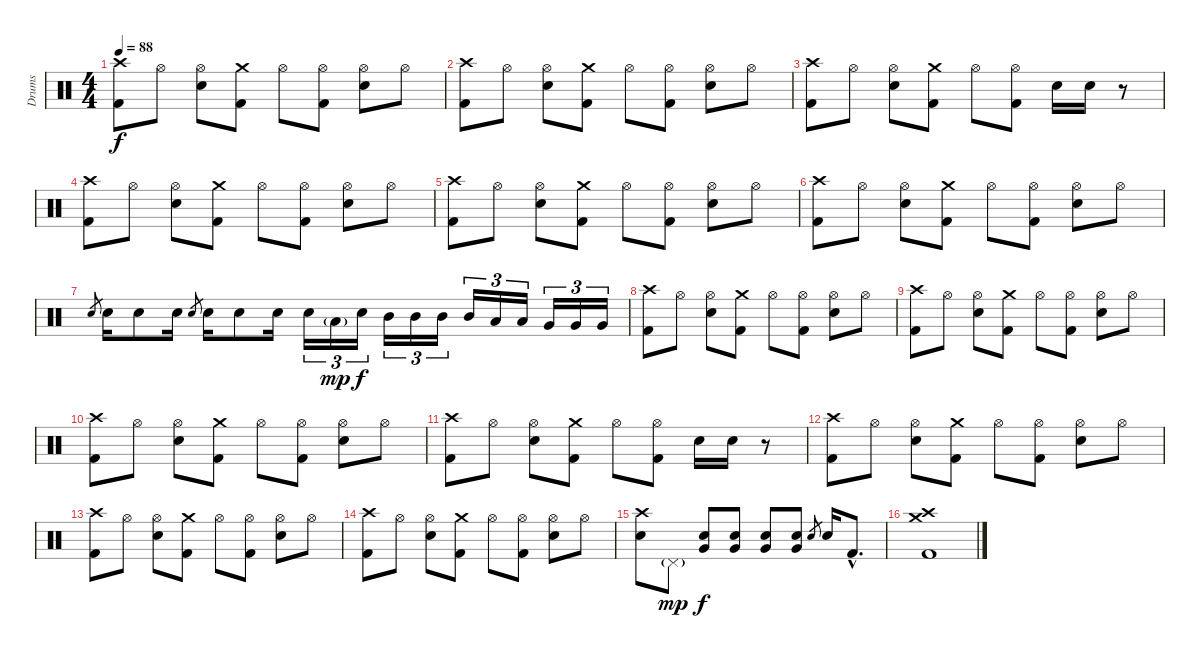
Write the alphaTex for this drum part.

\track ("Drums" "Drums") {instrument percussion}
\staff {score}
\articulation defaults
\ts (4 4)
\tempo 88
\clef neutral
\ks c
("Crash high (hit)" "Kick (hit) 2").8{dy f} "Hi-Hat (open)".8 ("Hi-Hat (open)" "Electric Snare (hit)").8 ("Crash medium (hit)" "Kick (hit) 2").8 "Hi-Hat (open)".8 ("Hi-Hat (open)" "Kick (hit) 2").8 ("Hi-Hat (open)" "Electric Snare (hit)").8 "Hi-Hat (open)".8 |
("Crash high (hit)" "Kick (hit) 2").8 "Hi-Hat (open)".8 ("Hi-Hat (open)" "Electric Snare (hit)").8 ("Crash medium (hit)" "Kick (hit) 2").8 "Hi-Hat (open)".8 ("Hi-Hat (open)" "Kick (hit) 2").8 ("Hi-Hat (open)" "Electric Snare (hit)").8 "Hi-Hat (open)".8 |
("Crash high (hit)" "Kick (hit) 2").8 "Hi-Hat (open)".8 ("Hi-Hat (open)" "Electric Snare (hit)").8 ("Crash medium (hit)" "Kick (hit) 2").8 "Hi-Hat (open)".8 ("Hi-Hat (open)" "Kick (hit) 2").8 "Electric Snare (hit)".16 "Electric Snare (hit)".16 r.8 |
("Crash high (hit)" "Kick (hit) 2").8 "Hi-Hat (open)".8 ("Hi-Hat (open)" "Electric Snare (hit)").8 ("Crash medium (hit)" "Kick (hit) 2").8 "Hi-Hat (open)".8 ("Hi-Hat (open)" "Kick (hit) 2").8 ("Hi-Hat (open)" "Electric Snare (hit)").8 "Hi-Hat (open)".8 |
("Crash high (hit)" "Kick (hit) 2").8 "Hi-Hat (open)".8 ("Hi-Hat (open)" "Electric Snare (hit)").8 ("Crash medium (hit)" "Kick (hit) 2").8 "Hi-Hat (open)".8 ("Hi-Hat (open)" "Kick (hit) 2").8 ("Hi-Hat (open)" "Electric Snare (hit)").8 "Hi-Hat (open)".8 |
("Crash high (hit)" "Kick (hit) 2").8 "Hi-Hat (open)".8 ("Hi-Hat (open)" "Electric Snare (hit)").8 ("Crash medium (hit)" "Kick (hit) 2").8 "Hi-Hat (open)".8 ("Hi-Hat (open)" "Kick (hit) 2").8 ("Hi-Hat (open)" "Electric Snare (hit)").8 "Hi-Hat (open)".8 |
"Electric Snare (hit)".8{gr} "Electric Snare (hit)".16 "Electric Snare (hit)".8 "Electric Snare (hit)".16 "Electric Snare (hit)".8{gr} "Electric Snare (hit)".16 "Electric Snare (hit)".8 "Electric Snare (hit)".16 "Electric Snare (hit)".16{tu (3 2)} "Low Tom (hit)"{g}.16{tu (3 2) dy mp} "Electric Snare (hit)".16{tu (3 2) dy f} "Mid Tom (hit)".16{tu (3 2)} "Mid Tom (hit)".16{tu (3 2)} "Mid Tom (hit)".16{tu (3 2)} "Mid Tom (hit)".16{tu (3 2)} "Low Tom (hit)".16{tu (3 2)} "Low Tom (hit)".16{tu (3 2)} "Very Low Tom (hit)".16{tu (3 2)} "Very Low Tom (hit)".16{tu (3 2)} "Very Low Tom (hit)".16{tu (3 2)} |
("Crash high (hit)" "Kick (hit) 2").8 "Hi-Hat (open)".8 ("Hi-Hat (open)" "Electric Snare (hit)").8 ("Crash medium (hit)" "Kick (hit) 2").8 "Hi-Hat (open)".8 ("Hi-Hat (open)" "Kick (hit) 2").8 ("Hi-Hat (open)" "Electric Snare (hit)").8 "Hi-Hat (open)".8 |
("Crash high (hit)" "Kick (hit) 2").8 "Hi-Hat (open)".8 ("Hi-Hat (open)" "Electric Snare (hit)").8 ("Crash medium (hit)" "Kick (hit) 2").8 "Hi-Hat (open)".8 ("Hi-Hat (open)" "Kick (hit) 2").8 ("Hi-Hat (open)" "Electric Snare (hit)").8 "Hi-Hat (open)".8 |
("Crash high (hit)" "Kick (hit) 2").8 "Hi-Hat (open)".8 ("Hi-Hat (open)" "Electric Snare (hit)").8 ("Crash medium (hit)" "Kick (hit) 2").8 "Hi-Hat (open)".8 ("Hi-Hat (open)" "Kick (hit) 2").8 ("Hi-Hat (open)" "Electric Snare (hit)").8 "Hi-Hat (open)".8 |
("Crash high (hit)" "Kick (hit) 2").8 "Hi-Hat (open)".8 ("Hi-Hat (open)" "Electric Snare (hit)").8 ("Crash medium (hit)" "Kick (hit) 2").8 "Hi-Hat (open)".8 ("Hi-Hat (open)" "Kick (hit) 2").8 "Electric Snare (hit)".16 "Electric Snare (hit)".16 r.8 |
("Crash high (hit)" "Kick (hit) 2").8 "Hi-Hat (open)".8 ("Hi-Hat (open)" "Electric Snare (hit)").8 ("Crash medium (hit)" "Kick (hit) 2").8 "Hi-Hat (open)".8 ("Hi-Hat (open)" "Kick (hit) 2").8 ("Hi-Hat (open)" "Electric Snare (hit)").8 "Hi-Hat (open)".8 |
("Crash high (hit)" "Kick (hit) 2").8 "Hi-Hat (open)".8 ("Hi-Hat (open)" "Electric Snare (hit)").8 ("Crash medium (hit)" "Kick (hit) 2").8 "Hi-Hat (open)".8 ("Hi-Hat (open)" "Kick (hit) 2").8 ("Hi-Hat (open)" "Electric Snare (hit)").8 "Hi-Hat (open)".8 |
("Crash high (hit)" "Kick (hit) 2").8 "Hi-Hat (open)".8 ("Hi-Hat (open)" "Electric Snare (hit)").8 ("Crash medium (hit)" "Kick (hit) 2").8 "Hi-Hat (open)".8 ("Hi-Hat (open)" "Kick (hit) 2").8 ("Hi-Hat (open)" "Electric Snare (hit)").8 "Hi-Hat (open)".8 |
("Crash high (hit)" "Electric Snare (hit)").8 "Pedal Hi-Hat (hit)"{g}.8{dy mp} ("Very Low Tom (hit)" "Electric Snare (hit)").8{dy f volume 7} ("Very Low Tom (hit)" "Electric Snare (hit)").8{volume 14} ("Very Low Tom (hit)" "Electric Snare (hit)").8 ("Very Low Tom (hit)" "Electric Snare (hit)").8 "Electric Snare (hit)".8{gr} "Electric Snare (hit)".16{volume 14} "Kick (hit) 2"{hac}.8{d} |
("Crash medium (hit)" "Crash high (hit)" "Kick (hit) 2").1
